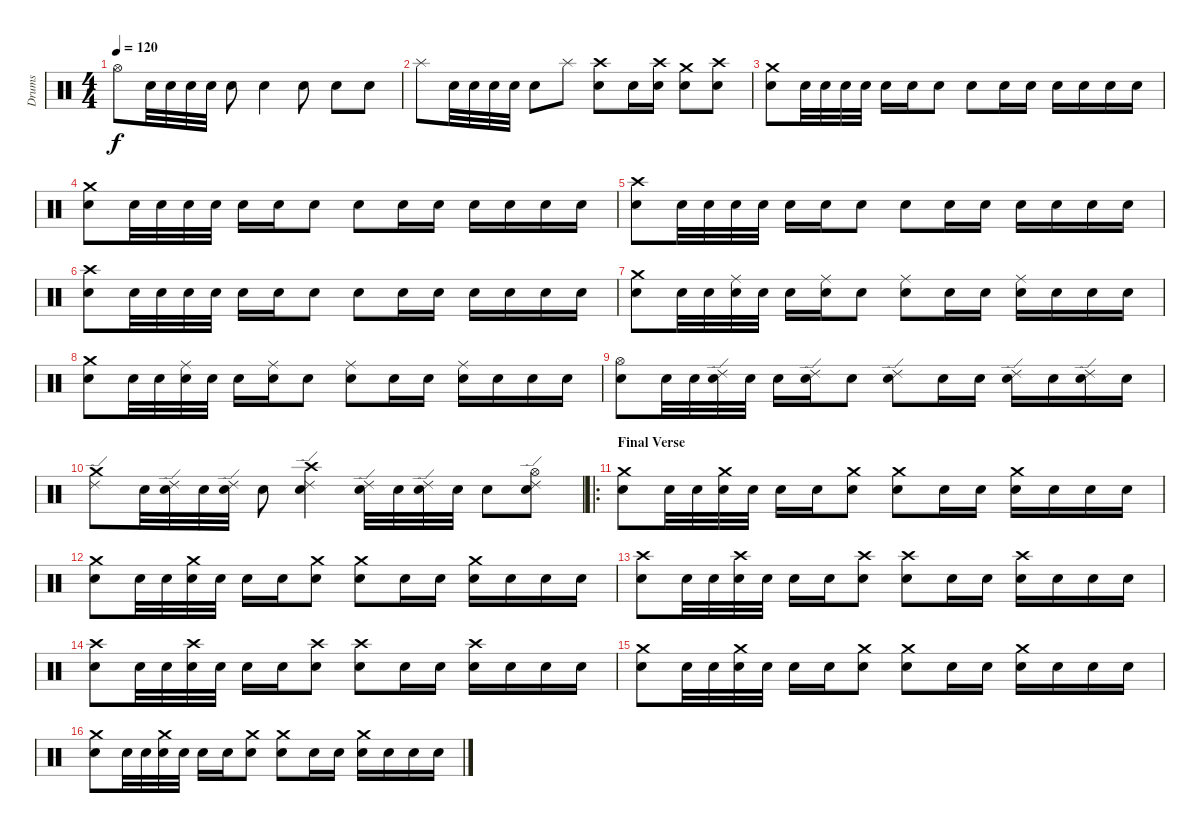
\track ("Drums" "Drums") {instrument percussion}
\staff {score}
\articulation defaults
\ts (4 4)
\tempo 120
\clef neutral
\ks c "Hi-Hat (open)".8{dy f} "Electric Snare (hit)".32 "Electric Snare (hit)".32 "Electric Snare (hit)".32 "Electric Snare (hit)".32 "Electric Snare (hit)".8 "Electric Snare (hit)".4 "Electric Snare (hit)".8 "Electric Snare (hit)".8 "Electric Snare (hit)".8
|
"Splash (hit)".8 "Electric Snare (hit)".32 "Electric Snare (hit)".32 "Electric Snare (hit)".32 "Electric Snare (hit)".32 "Electric Snare (hit)".8 "Splash (hit)".8 ("Crash high (hit)" "Electric Snare (hit)").8 "Electric Snare (hit)".16 ("Crash high (hit)" "Electric Snare (hit)").16 ("Crash medium (hit)" "Electric Snare (hit)").8 ("Crash high (hit)" "Electric Snare (hit)").8 |
("Crash medium (hit)" "Snare (hit) 2").8 "Electric Snare (hit)".32 "Electric Snare (hit)".32 "Electric Snare (hit)".32 "Electric Snare (hit)".32 "Snare (hit) 2".16 "Electric Snare (hit)".16 "Snare (hit) 2".8 "Electric Snare (hit)".8 "Snare (hit) 2".16 "Electric Snare (hit)".16 "Snare (hit) 2".16 "Electric Snare (hit)".16 "Snare (hit) 2".16 "Electric Snare (hit)".16 |
("Crash medium (hit)" "Snare (hit) 2").8 "Electric Snare (hit)".32 "Electric Snare (hit)".32 "Electric Snare (hit)".32 "Electric Snare (hit)".32 "Snare (hit) 2".16 "Electric Snare (hit)".16 "Snare (hit) 2".8 "Electric Snare (hit)".8 "Snare (hit) 2".16 "Electric Snare (hit)".16 "Snare (hit) 2".16 "Electric Snare (hit)".16 "Snare (hit) 2".16 "Electric Snare (hit)".16 |
("Crash high (hit)" "Snare (hit) 2").8 "Electric Snare (hit)".32 "Electric Snare (hit)".32 "Electric Snare (hit)".32 "Electric Snare (hit)".32 "Snare (hit) 2".16 "Electric Snare (hit)".16 "Snare (hit) 2".8 "Electric Snare (hit)".8 "Snare (hit) 2".16 "Electric Snare (hit)".16 "Snare (hit) 2".16 "Electric Snare (hit)".16 "Snare (hit) 2".16 "Electric Snare (hit)".16 |
("Crash high (hit)" "Snare (hit) 2").8 "Electric Snare (hit)".32 "Electric Snare (hit)".32 "Electric Snare (hit)".32 "Electric Snare (hit)".32 "Snare (hit) 2".16 "Electric Snare (hit)".16 "Snare (hit) 2".8 "Electric Snare (hit)".8 "Snare (hit) 2".16 "Electric Snare (hit)".16 "Snare (hit) 2".16 "Electric Snare (hit)".16 "Snare (hit) 2".16 "Electric Snare (hit)".16 |
("Crash medium (hit)" "Snare (hit) 2").8 "Electric Snare (hit)".32 "Electric Snare (hit)".32 ("Ride (middle)" "Electric Snare (hit)").32 "Electric Snare (hit)".32 "Snare (hit) 2".16 ("Ride (middle)" "Electric Snare (hit)").16 "Snare (hit) 2".8 ("Ride (middle)" "Electric Snare (hit)").8 "Snare (hit) 2".16 "Electric Snare (hit)".16 ("Ride (middle)" "Snare (hit) 2").16 "Electric Snare (hit)".16 "Snare (hit) 2".16 "Electric Snare (hit)".16 |
("Crash medium (hit)" "Snare (hit) 2").8 "Electric Snare (hit)".32 "Electric Snare (hit)".32 ("Ride (middle)" "Electric Snare (hit)").32 "Electric Snare (hit)".32 "Snare (hit) 2".16 ("Ride (middle)" "Electric Snare (hit)").16 "Snare (hit) 2".8 ("Ride (middle)" "Electric Snare (hit)").8 "Snare (hit) 2".16 "Electric Snare (hit)".16 ("Ride (middle)" "Snare (hit) 2").16 "Electric Snare (hit)".16 "Snare (hit) 2".16 "Electric Snare (hit)".16 |
("Hi-Hat (open)" "Snare (hit) 2").8 "Electric Snare (hit)".32 "Electric Snare (hit)".32 ("Ride (edge) 2" "Electric Snare (hit)").32 "Electric Snare (hit)".32 "Snare (hit) 2".16 ("Ride (edge) 2" "Electric Snare (hit)").16 "Snare (hit) 2".8 ("Ride (edge) 2" "Electric Snare (hit)").8 "Snare (hit) 2".16 "Electric Snare (hit)".16 ("Ride (edge) 2" "Snare (hit) 2").16 "Electric Snare (hit)".16 ("Ride (edge) 2" "Snare (hit) 2").16 "Electric Snare (hit)".16 |
("Crash medium (hit)" "Ride (edge) 2").8 "Electric Snare (hit)".32 ("Electric Snare (hit)" "Ride (edge) 2").32 "Electric Snare (hit)".32 ("Electric Snare (hit)" "Ride (edge) 2").32 "Electric Snare (hit)".8 ("Crash high (hit)" "Electric Snare (hit)" "Ride (edge) 2").4 ("Electric Snare (hit)" "Ride (edge) 2").32 "Electric Snare (hit)".32 ("Electric Snare (hit)" "Ride (edge) 2").32 "Electric Snare (hit)".32 "Electric Snare (hit)".8 ("Hi-Hat (open)" "Electric Snare (hit)" "Ride (edge) 2").8 |
\ro
\section ("" "Final Verse")
("Crash medium (hit)" "Snare (hit) 2").8 "Electric Snare (hit)".32 "Electric Snare (hit)".32 ("Crash medium (hit)" "Electric Snare (hit)").32 "Electric Snare (hit)".32 "Snare (hit) 2".16 "Electric Snare (hit)".16 ("Crash medium (hit)" "Snare (hit) 2").8 ("Crash medium (hit)" "Electric Snare (hit)").8 "Snare (hit) 2".16 "Electric Snare (hit)".16 ("Crash medium (hit)" "Snare (hit) 2").16 "Electric Snare (hit)".16 "Snare (hit) 2".16 "Electric Snare (hit)".16 |
("Crash medium (hit)" "Snare (hit) 2").8 "Electric Snare (hit)".32 "Electric Snare (hit)".32 ("Crash medium (hit)" "Electric Snare (hit)").32 "Electric Snare (hit)".32 "Snare (hit) 2".16 "Electric Snare (hit)".16 ("Crash medium (hit)" "Snare (hit) 2").8 ("Crash medium (hit)" "Electric Snare (hit)").8 "Snare (hit) 2".16 "Electric Snare (hit)".16 ("Crash medium (hit)" "Snare (hit) 2").16 "Electric Snare (hit)".16 "Snare (hit) 2".16 "Electric Snare (hit)".16 |
("Crash high (hit)" "Snare (hit) 2").8 "Electric Snare (hit)".32 "Electric Snare (hit)".32 ("Crash high (hit)" "Electric Snare (hit)").32 "Electric Snare (hit)".32 "Snare (hit) 2".16 "Electric Snare (hit)".16 ("Crash high (hit)" "Snare (hit) 2").8 ("Crash high (hit)" "Electric Snare (hit)").8 "Snare (hit) 2".16 "Electric Snare (hit)".16 ("Crash high (hit)" "Snare (hit) 2").16 "Electric Snare (hit)".16 "Snare (hit) 2".16 "Electric Snare (hit)".16 |
("Crash high (hit)" "Snare (hit) 2").8 "Electric Snare (hit)".32 "Electric Snare (hit)".32 ("Crash high (hit)" "Electric Snare (hit)").32 "Electric Snare (hit)".32 "Snare (hit) 2".16 "Electric Snare (hit)".16 ("Crash high (hit)" "Snare (hit) 2").8 ("Crash high (hit)" "Electric Snare (hit)").8 "Snare (hit) 2".16 "Electric Snare (hit)".16 ("Crash high (hit)" "Snare (hit) 2").16 "Electric Snare (hit)".16 "Snare (hit) 2".16 "Electric Snare (hit)".16 |
("Crash medium (hit)" "Snare (hit) 2").8 "Electric Snare (hit)".32 "Electric Snare (hit)".32 ("Crash medium (hit)" "Electric Snare (hit)").32 "Electric Snare (hit)".32 "Snare (hit) 2".16 "Electric Snare (hit)".16 ("Crash medium (hit)" "Snare (hit) 2").8 ("Crash medium (hit)" "Electric Snare (hit)").8 "Snare (hit) 2".16 "Electric Snare (hit)".16 ("Crash medium (hit)" "Snare (hit) 2").16 "Electric Snare (hit)".16 "Snare (hit) 2".16 "Electric Snare (hit)".16 |
("Crash medium (hit)" "Snare (hit) 2").8 "Electric Snare (hit)".32 "Electric Snare (hit)".32 ("Crash medium (hit)" "Electric Snare (hit)").32 "Electric Snare (hit)".32 "Snare (hit) 2".16 "Electric Snare (hit)".16 ("Crash medium (hit)" "Snare (hit) 2").8 ("Crash medium (hit)" "Electric Snare (hit)").8 "Snare (hit) 2".16 "Electric Snare (hit)".16 ("Crash medium (hit)" "Snare (hit) 2").16 "Electric Snare (hit)".16 "Snare (hit) 2".16 "Electric Snare (hit)".16
